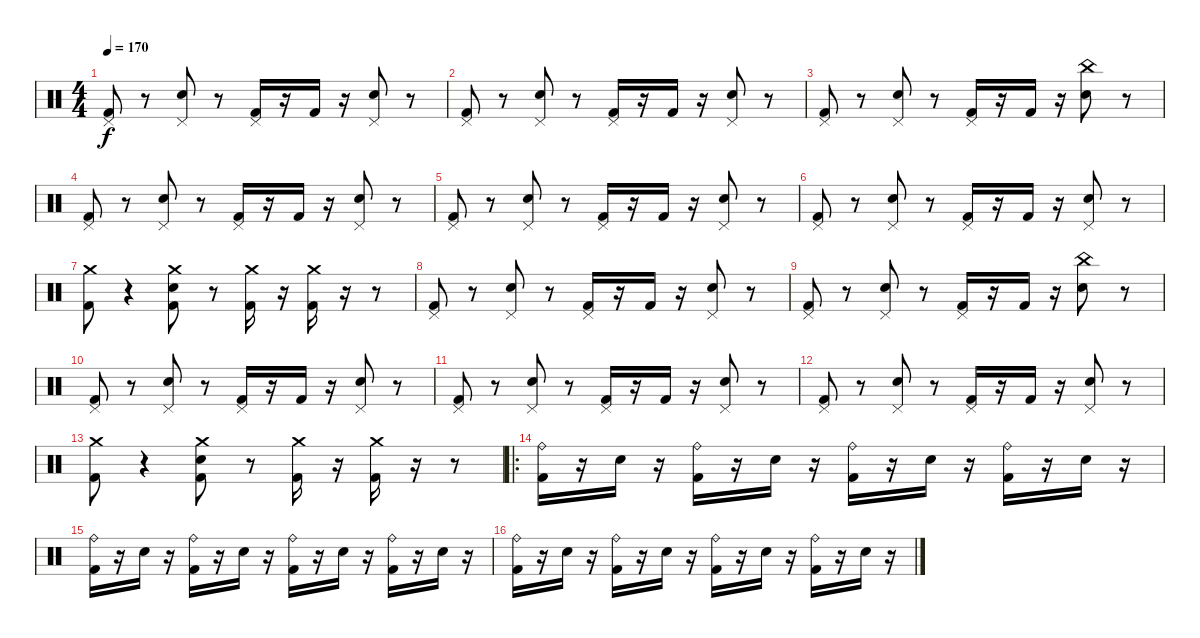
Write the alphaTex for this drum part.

\track "" {instrument percussion}
\staff {score}
\articulation defaults
\ts (4 4)
\tempo 170
\clef neutral
\ks c
("Kick (hit) 2" "Pedal Hi-Hat (hit)").8{dy f} r.8 ("Electric Snare (hit)" "Pedal Hi-Hat (hit)").8 r.8 ("Kick (hit) 2" "Pedal Hi-Hat (hit)").16 r.16 "Kick (hit) 2".16 r.16 ("Electric Snare (hit)" "Pedal Hi-Hat (hit)").8 r.8 |
("Kick (hit) 2" "Pedal Hi-Hat (hit)").8 r.8 ("Electric Snare (hit)" "Pedal Hi-Hat (hit)").8 r.8 ("Kick (hit) 2" "Pedal Hi-Hat (hit)").16 r.16 "Kick (hit) 2".16 r.16 ("Electric Snare (hit)" "Pedal Hi-Hat (hit)").8 r.8 |
("Kick (hit) 2" "Pedal Hi-Hat (hit)").8 r.8 ("Electric Snare (hit)" "Pedal Hi-Hat (hit)").8 r.8 ("Kick (hit) 2" "Pedal Hi-Hat (hit)").16 r.16 "Kick (hit) 2".16 r.16 ("Electric Snare (hit)" "China (hit)").8 r.8 |
("Kick (hit) 2" "Pedal Hi-Hat (hit)").8 r.8 ("Electric Snare (hit)" "Pedal Hi-Hat (hit)").8 r.8 ("Kick (hit) 2" "Pedal Hi-Hat (hit)").16 r.16 "Kick (hit) 2".16 r.16 ("Electric Snare (hit)" "Pedal Hi-Hat (hit)").8 r.8 |
("Kick (hit) 2" "Pedal Hi-Hat (hit)").8 r.8 ("Electric Snare (hit)" "Pedal Hi-Hat (hit)").8 r.8 ("Kick (hit) 2" "Pedal Hi-Hat (hit)").16 r.16 "Kick (hit) 2".16 r.16 ("Electric Snare (hit)" "Pedal Hi-Hat (hit)").8 r.8 |
("Kick (hit) 2" "Pedal Hi-Hat (hit)").8 r.8 ("Electric Snare (hit)" "Pedal Hi-Hat (hit)").8 r.8 ("Kick (hit) 2" "Pedal Hi-Hat (hit)").16 r.16 "Kick (hit) 2".16 r.16 ("Electric Snare (hit)" "Pedal Hi-Hat (hit)").8 r.8 |
("Kick (hit) 2" "Crash medium (hit)").8 r.4 ("Electric Snare (hit)" "Crash medium (hit)" "Kick (hit) 2").8 r.8 ("Kick (hit) 2" "Crash medium (hit)").16 r.16 ("Kick (hit) 2" "Crash medium (hit)").16 r.16 r.8 |
("Kick (hit) 2" "Pedal Hi-Hat (hit)").8 r.8 ("Electric Snare (hit)" "Pedal Hi-Hat (hit)").8 r.8 ("Kick (hit) 2" "Pedal Hi-Hat (hit)").16 r.16 "Kick (hit) 2".16 r.16 ("Electric Snare (hit)" "Pedal Hi-Hat (hit)").8 r.8 |
("Kick (hit) 2" "Pedal Hi-Hat (hit)").8 r.8 ("Electric Snare (hit)" "Pedal Hi-Hat (hit)").8 r.8 ("Kick (hit) 2" "Pedal Hi-Hat (hit)").16 r.16 "Kick (hit) 2".16 r.16 ("Electric Snare (hit)" "China (hit)").8 r.8 |
("Kick (hit) 2" "Pedal Hi-Hat (hit)").8 r.8 ("Electric Snare (hit)" "Pedal Hi-Hat (hit)").8 r.8 ("Kick (hit) 2" "Pedal Hi-Hat (hit)").16 r.16 "Kick (hit) 2".16 r.16 ("Electric Snare (hit)" "Pedal Hi-Hat (hit)").8 r.8 |
("Kick (hit) 2" "Pedal Hi-Hat (hit)").8 r.8 ("Electric Snare (hit)" "Pedal Hi-Hat (hit)").8 r.8 ("Kick (hit) 2" "Pedal Hi-Hat (hit)").16 r.16 "Kick (hit) 2".16 r.16 ("Electric Snare (hit)" "Pedal Hi-Hat (hit)").8 r.8 |
("Kick (hit) 2" "Pedal Hi-Hat (hit)").8 r.8 ("Electric Snare (hit)" "Pedal Hi-Hat (hit)").8 r.8 ("Kick (hit) 2" "Pedal Hi-Hat (hit)").16 r.16 "Kick (hit) 2".16 r.16 ("Electric Snare (hit)" "Pedal Hi-Hat (hit)").8 r.8 |
("Kick (hit) 2" "Crash medium (hit)").8 r.4 ("Electric Snare (hit)" "Crash medium (hit)" "Kick (hit) 2").8 r.8 ("Kick (hit) 2" "Crash medium (hit)").16 r.16 ("Kick (hit) 2" "Crash medium (hit)").16 r.16 r.8 |
\ro
("Kick (hit) 2" "Ride (bell)").16 r.16 "Electric Snare (hit)".16 r.16 ("Kick (hit) 2" "Ride (bell)").16 r.16 "Electric Snare (hit)".16 r.16 ("Kick (hit) 2" "Ride (bell)").16 r.16 "Electric Snare (hit)".16 r.16 ("Kick (hit) 2" "Ride (bell)").16 r.16 "Electric Snare (hit)".16 r.16 |
("Kick (hit) 2" "Ride (bell)").16 r.16 "Electric Snare (hit)".16 r.16 ("Kick (hit) 2" "Ride (bell)").16 r.16 "Electric Snare (hit)".16 r.16 ("Kick (hit) 2" "Ride (bell)").16 r.16 "Electric Snare (hit)".16 r.16 ("Kick (hit) 2" "Ride (bell)").16 r.16 "Electric Snare (hit)".16 r.16 |
("Kick (hit) 2" "Ride (bell)").16 r.16 "Electric Snare (hit)".16 r.16 ("Kick (hit) 2" "Ride (bell)").16 r.16 "Electric Snare (hit)".16 r.16 ("Kick (hit) 2" "Ride (bell)").16 r.16 "Electric Snare (hit)".16 r.16 ("Kick (hit) 2" "Ride (bell)").16 r.16 "Electric Snare (hit)".16 r.16
